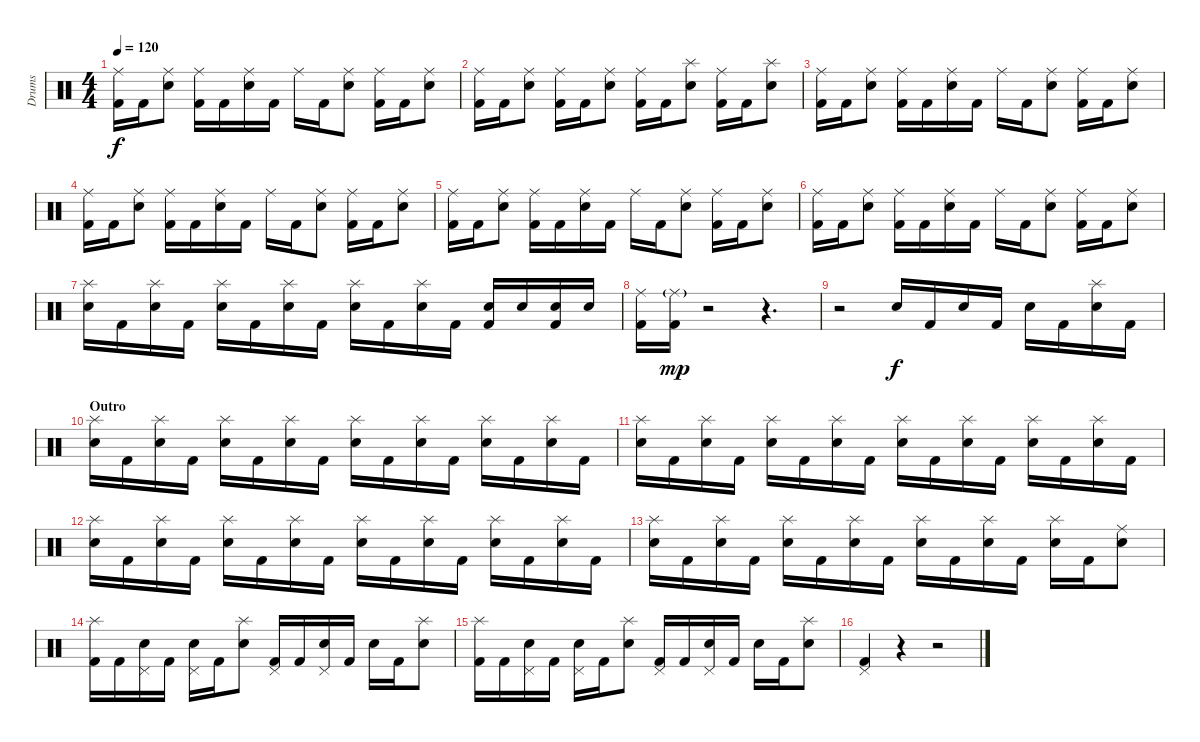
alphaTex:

\track ("Drums" "Drums") {instrument percussion}
\staff {score}
\articulation defaults
\ts (4 4)
\tempo 120
\clef neutral
\ks c
("Ride (middle)" "Kick (hit) 2").16{dy f} "Kick (hit) 2".16 ("Ride (middle)" "Electric Snare (hit)").8 ("Ride (middle)" "Kick (hit) 2").16 "Kick (hit) 2".16 ("Ride (middle)" "Electric Snare (hit)").16 "Kick (hit) 2".16 "Ride (middle)".16 "Kick (hit) 2".16 ("Ride (middle)" "Electric Snare (hit)").8 ("Ride (middle)" "Kick (hit) 2").16 "Kick (hit) 2".16 ("Ride (middle)" "Electric Snare (hit)").8 |
("Ride (middle)" "Kick (hit) 2").16 "Kick (hit) 2".16 ("Ride (middle)" "Electric Snare (hit)").8 ("Ride (middle)" "Kick (hit) 2").16 "Kick (hit) 2".16 ("Ride (middle)" "Electric Snare (hit)").8 ("Ride (middle)" "Kick (hit) 2").16 "Kick (hit) 2".16 ("Splash (hit)" "Electric Snare (hit)").8 ("Ride (middle)" "Kick (hit) 2").16 "Kick (hit) 2".16 ("Splash (hit)" "Electric Snare (hit)").8 |
("Ride (middle)" "Kick (hit) 2").16 "Kick (hit) 2".16 ("Ride (middle)" "Electric Snare (hit)").8 ("Ride (middle)" "Kick (hit) 2").16 "Kick (hit) 2".16 ("Ride (middle)" "Electric Snare (hit)").16 "Kick (hit) 2".16 "Ride (middle)".16 "Kick (hit) 2".16 ("Ride (middle)" "Electric Snare (hit)").8 ("Ride (middle)" "Kick (hit) 2").16 "Kick (hit) 2".16 ("Ride (middle)" "Electric Snare (hit)").8 |
("Ride (middle)" "Kick (hit) 2").16 "Kick (hit) 2".16 ("Ride (middle)" "Electric Snare (hit)").8 ("Ride (middle)" "Kick (hit) 2").16 "Kick (hit) 2".16 ("Ride (middle)" "Electric Snare (hit)").16 "Kick (hit) 2".16 "Ride (middle)".16 "Kick (hit) 2".16 ("Ride (middle)" "Electric Snare (hit)").8 ("Ride (middle)" "Kick (hit) 2").16 "Kick (hit) 2".16 ("Ride (middle)" "Electric Snare (hit)").8 |
("Ride (middle)" "Kick (hit) 2").16 "Kick (hit) 2".16 ("Ride (middle)" "Electric Snare (hit)").8 ("Ride (middle)" "Kick (hit) 2").16 "Kick (hit) 2".16 ("Ride (middle)" "Electric Snare (hit)").16 "Kick (hit) 2".16 "Ride (middle)".16 "Kick (hit) 2".16 ("Ride (middle)" "Electric Snare (hit)").8 ("Ride (middle)" "Kick (hit) 2").16 "Kick (hit) 2".16 ("Ride (middle)" "Electric Snare (hit)").8 |
("Ride (middle)" "Kick (hit) 2").16 "Kick (hit) 2".16 ("Ride (middle)" "Electric Snare (hit)").8 ("Ride (middle)" "Kick (hit) 2").16 "Kick (hit) 2".16 ("Ride (middle)" "Electric Snare (hit)").16 "Kick (hit) 2".16 "Ride (middle)".16 "Kick (hit) 2".16 ("Ride (middle)" "Electric Snare (hit)").8 ("Ride (middle)" "Kick (hit) 2").16 "Kick (hit) 2".16 ("Ride (middle)" "Electric Snare (hit)").8 |
("Splash (hit)" "Electric Snare (hit)").16 "Kick (hit) 2".16 ("Splash (hit)" "Electric Snare (hit)").16 "Kick (hit) 2".16 ("Splash (hit)" "Electric Snare (hit)").16 "Kick (hit) 2".16 ("Splash (hit)" "Electric Snare (hit)").16 "Kick (hit) 2".16 ("Splash (hit)" "Electric Snare (hit)").16 "Kick (hit) 2".16 ("Splash (hit)" "Electric Snare (hit)").16 "Kick (hit) 2".16 ("Electric Snare (hit)" "Kick (hit) 2").16 "Electric Snare (hit)".16 ("Electric Snare (hit)" "Kick (hit) 2").16 "Electric Snare (hit)".16 |
("Ride (middle)" "Kick (hit) 2").16 ("Ride (middle)"{g} "Kick (hit) 2").16{dy mp} r.2 r.4{d} |
r.2 "Electric Snare (hit)".16{dy f} "Kick (hit) 2".16 "Electric Snare (hit)".16 "Kick (hit) 2".16 "Electric Snare (hit)".16 "Kick (hit) 2".16 ("Splash (hit)" "Electric Snare (hit)").16 "Kick (hit) 2".16 |
\section ("" "Outro")
("Splash (hit)" "Electric Snare (hit)").16 "Kick (hit) 2".16 ("Splash (hit)" "Electric Snare (hit)").16 "Kick (hit) 2".16 ("Splash (hit)" "Electric Snare (hit)").16 "Kick (hit) 2".16 ("Splash (hit)" "Electric Snare (hit)").16 "Kick (hit) 2".16 ("Splash (hit)" "Electric Snare (hit)").16 "Kick (hit) 2".16 ("Splash (hit)" "Electric Snare (hit)").16 "Kick (hit) 2".16 ("Splash (hit)" "Electric Snare (hit)").16 "Kick (hit) 2".16 ("Splash (hit)" "Electric Snare (hit)").16 "Kick (hit) 2".16 |
("Splash (hit)" "Electric Snare (hit)").16 "Kick (hit) 2".16 ("Splash (hit)" "Electric Snare (hit)").16 "Kick (hit) 2".16 ("Splash (hit)" "Electric Snare (hit)").16 "Kick (hit) 2".16 ("Splash (hit)" "Electric Snare (hit)").16 "Kick (hit) 2".16 ("Splash (hit)" "Electric Snare (hit)").16 "Kick (hit) 2".16 ("Splash (hit)" "Electric Snare (hit)").16 "Kick (hit) 2".16 ("Splash (hit)" "Electric Snare (hit)").16 "Kick (hit) 2".16 ("Splash (hit)" "Electric Snare (hit)").16 "Kick (hit) 2".16 |
("Splash (hit)" "Electric Snare (hit)").16 "Kick (hit) 2".16 ("Splash (hit)" "Electric Snare (hit)").16 "Kick (hit) 2".16 ("Splash (hit)" "Electric Snare (hit)").16 "Kick (hit) 2".16 ("Splash (hit)" "Electric Snare (hit)").16 "Kick (hit) 2".16 ("Splash (hit)" "Electric Snare (hit)").16 "Kick (hit) 2".16 ("Splash (hit)" "Electric Snare (hit)").16 "Kick (hit) 2".16 ("Splash (hit)" "Electric Snare (hit)").16 "Kick (hit) 2".16 ("Splash (hit)" "Electric Snare (hit)").16 "Kick (hit) 2".16 |
("Splash (hit)" "Electric Snare (hit)").16 "Kick (hit) 2".16 ("Splash (hit)" "Electric Snare (hit)").16 "Kick (hit) 2".16 ("Splash (hit)" "Electric Snare (hit)").16 "Kick (hit) 2".16 ("Splash (hit)" "Electric Snare (hit)").16 "Kick (hit) 2".16 ("Splash (hit)" "Electric Snare (hit)").16 "Kick (hit) 2".16 ("Splash (hit)" "Electric Snare (hit)").16 "Kick (hit) 2".16 ("Splash (hit)" "Electric Snare (hit)").16 "Kick (hit) 2".16 ("Ride (middle)" "Electric Snare (hit)").8 |
("Splash (hit)" "Kick (hit) 2").16 "Kick (hit) 2".16 ("Pedal Hi-Hat (hit)" "Electric Snare (hit)").16 "Kick (hit) 2".16 ("Pedal Hi-Hat (hit)" "Electric Snare (hit)").16 "Kick (hit) 2".16 ("Splash (hit)" "Electric Snare (hit)").8 ("Pedal Hi-Hat (hit)" "Kick (hit) 2").16 "Kick (hit) 2".16 ("Pedal Hi-Hat (hit)" "Electric Snare (hit)").16 "Kick (hit) 2".16 "Electric Snare (hit)".16 "Kick (hit) 2".16 ("Splash (hit)" "Electric Snare (hit)").8 |
("Splash (hit)" "Kick (hit) 2").16 "Kick (hit) 2".16 ("Pedal Hi-Hat (hit)" "Electric Snare (hit)").16 "Kick (hit) 2".16 ("Pedal Hi-Hat (hit)" "Electric Snare (hit)").16 "Kick (hit) 2".16 ("Splash (hit)" "Electric Snare (hit)").8 ("Pedal Hi-Hat (hit)" "Kick (hit) 2").16 "Kick (hit) 2".16 ("Pedal Hi-Hat (hit)" "Electric Snare (hit)").16 "Kick (hit) 2".16 "Electric Snare (hit)".16 "Kick (hit) 2".16 ("Splash (hit)" "Electric Snare (hit)").8 |
("Pedal Hi-Hat (hit)" "Kick (hit) 2").4 r.4 r.2
